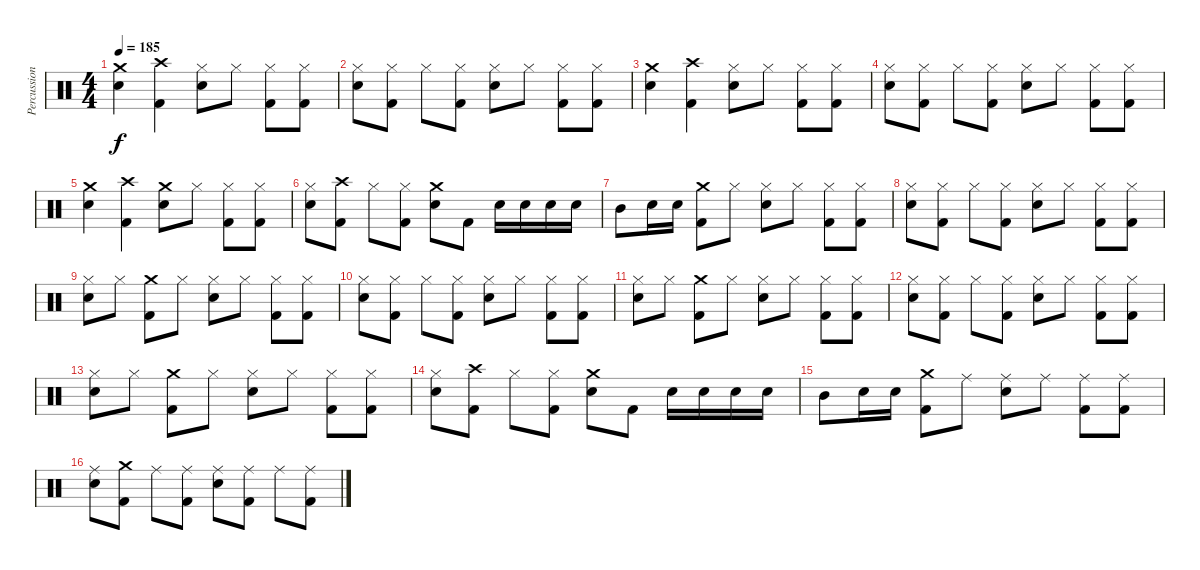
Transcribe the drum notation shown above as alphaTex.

\track ("Percussion" "Percussion") {instrument percussion}
\staff {score}
\articulation defaults
\ts (4 4)
\tempo 185
\clef neutral
\ks c
("Crash medium (hit)" "Electric Snare (hit)").4{dy f} ("Crash high (hit)" "Kick (hit) 2").4 ("Hi-Hat (closed)" "Electric Snare (hit)").8 "Hi-Hat (closed)".8 ("Hi-Hat (closed)" "Kick (hit) 2").8 ("Hi-Hat (closed)" "Kick (hit) 2").8 |
("Hi-Hat (closed)" "Electric Snare (hit)").8 ("Hi-Hat (closed)" "Kick (hit) 2").8 "Hi-Hat (closed)".8 ("Hi-Hat (closed)" "Kick (hit) 2").8 ("Hi-Hat (closed)" "Electric Snare (hit)").8 "Hi-Hat (closed)".8 ("Hi-Hat (closed)" "Kick (hit) 2").8 ("Hi-Hat (closed)" "Kick (hit) 2").8 |
("Crash medium (hit)" "Electric Snare (hit)").4 ("Crash high (hit)" "Kick (hit) 2").4 ("Hi-Hat (closed)" "Electric Snare (hit)").8 "Hi-Hat (closed)".8 ("Hi-Hat (closed)" "Kick (hit) 2").8 ("Hi-Hat (closed)" "Kick (hit) 2").8 |
("Hi-Hat (closed)" "Electric Snare (hit)").8 ("Hi-Hat (closed)" "Kick (hit) 2").8 "Hi-Hat (closed)".8 ("Hi-Hat (closed)" "Kick (hit) 2").8 ("Hi-Hat (closed)" "Electric Snare (hit)").8 "Hi-Hat (closed)".8 ("Hi-Hat (closed)" "Kick (hit) 2").8 ("Hi-Hat (closed)" "Kick (hit) 2").8 |
("Crash medium (hit)" "Electric Snare (hit)").4 ("Crash high (hit)" "Kick (hit) 2").4 ("Crash medium (hit)" "Electric Snare (hit)").8 "Hi-Hat (closed)".8 ("Hi-Hat (closed)" "Kick (hit) 2").8 ("Hi-Hat (closed)" "Kick (hit) 2").8 |
("Hi-Hat (closed)" "Electric Snare (hit)").8 ("Crash high (hit)" "Kick (hit) 2").8 "Hi-Hat (closed)".8 ("Hi-Hat (closed)" "Kick (hit) 2").8 ("Crash medium (hit)" "Electric Snare (hit)").8 "Kick (hit) 2".8 "Electric Snare (hit)".16 "Electric Snare (hit)".16 "Electric Snare (hit)".16 "Electric Snare (hit)".16 |
"Mid Tom (hit)".8 "Electric Snare (hit)".16 "Electric Snare (hit)".16 ("Crash medium (hit)" "Kick (hit) 2").8 "Hi-Hat (closed)".8 ("Hi-Hat (closed)" "Electric Snare (hit)").8 "Hi-Hat (closed)".8 ("Hi-Hat (closed)" "Kick (hit) 2").8 ("Hi-Hat (closed)" "Kick (hit) 2").8 |
("Hi-Hat (closed)" "Electric Snare (hit)").8 ("Hi-Hat (closed)" "Kick (hit) 2").8 "Hi-Hat (closed)".8 ("Hi-Hat (closed)" "Kick (hit) 2").8 ("Hi-Hat (closed)" "Electric Snare (hit)").8 "Hi-Hat (closed)".8 ("Hi-Hat (closed)" "Kick (hit) 2").8 ("Hi-Hat (closed)" "Kick (hit) 2").8 |
("Hi-Hat (closed)" "Electric Snare (hit)").8 "Hi-Hat (closed)".8 ("Crash medium (hit)" "Kick (hit) 2").8 "Hi-Hat (closed)".8 ("Hi-Hat (closed)" "Electric Snare (hit)").8 "Hi-Hat (closed)".8 ("Hi-Hat (closed)" "Kick (hit) 2").8 ("Hi-Hat (closed)" "Kick (hit) 2").8 |
("Hi-Hat (closed)" "Electric Snare (hit)").8 ("Hi-Hat (closed)" "Kick (hit) 2").8 "Hi-Hat (closed)".8 ("Hi-Hat (closed)" "Kick (hit) 2").8 ("Hi-Hat (closed)" "Electric Snare (hit)").8 "Hi-Hat (closed)".8 ("Hi-Hat (closed)" "Kick (hit) 2").8 ("Hi-Hat (closed)" "Kick (hit) 2").8 |
("Hi-Hat (closed)" "Electric Snare (hit)").8 "Hi-Hat (closed)".8 ("Crash medium (hit)" "Kick (hit) 2").8 "Hi-Hat (closed)".8 ("Hi-Hat (closed)" "Electric Snare (hit)").8 "Hi-Hat (closed)".8 ("Hi-Hat (closed)" "Kick (hit) 2").8 ("Hi-Hat (closed)" "Kick (hit) 2").8 |
("Hi-Hat (closed)" "Electric Snare (hit)").8 ("Hi-Hat (closed)" "Kick (hit) 2").8 "Hi-Hat (closed)".8 ("Hi-Hat (closed)" "Kick (hit) 2").8 ("Hi-Hat (closed)" "Electric Snare (hit)").8 "Hi-Hat (closed)".8 ("Hi-Hat (closed)" "Kick (hit) 2").8 ("Hi-Hat (closed)" "Kick (hit) 2").8 |
("Hi-Hat (closed)" "Electric Snare (hit)").8 "Hi-Hat (closed)".8 ("Crash medium (hit)" "Kick (hit) 2").8 "Hi-Hat (closed)".8 ("Hi-Hat (closed)" "Electric Snare (hit)").8 "Hi-Hat (closed)".8 ("Hi-Hat (closed)" "Kick (hit) 2").8 ("Hi-Hat (closed)" "Kick (hit) 2").8 |
("Hi-Hat (closed)" "Electric Snare (hit)").8 ("Crash high (hit)" "Kick (hit) 2").8 "Hi-Hat (closed)".8 ("Hi-Hat (closed)" "Kick (hit) 2").8 ("Crash medium (hit)" "Electric Snare (hit)").8 "Kick (hit) 2".8 "Electric Snare (hit)".16 "Electric Snare (hit)".16 "Electric Snare (hit)".16 "Electric Snare (hit)".16 |
"Mid Tom (hit)".8 "Electric Snare (hit)".16 "Electric Snare (hit)".16 ("Crash medium (hit)" "Kick (hit) 2").8 "Ride (middle)".8 ("Ride (middle)" "Electric Snare (hit)").8 "Ride (middle)".8 ("Ride (middle)" "Kick (hit) 2").8 ("Ride (middle)" "Kick (hit) 2").8 |
("Ride (middle)" "Electric Snare (hit)").8 ("Crash medium (hit)" "Kick (hit) 2").8 "Ride (middle)".8 ("Ride (middle)" "Kick (hit) 2").8 ("Ride (middle)" "Electric Snare (hit)").8 ("Ride (middle)" "Kick (hit) 2").8 "Ride (middle)".8 ("Ride (middle)" "Kick (hit) 2").8
